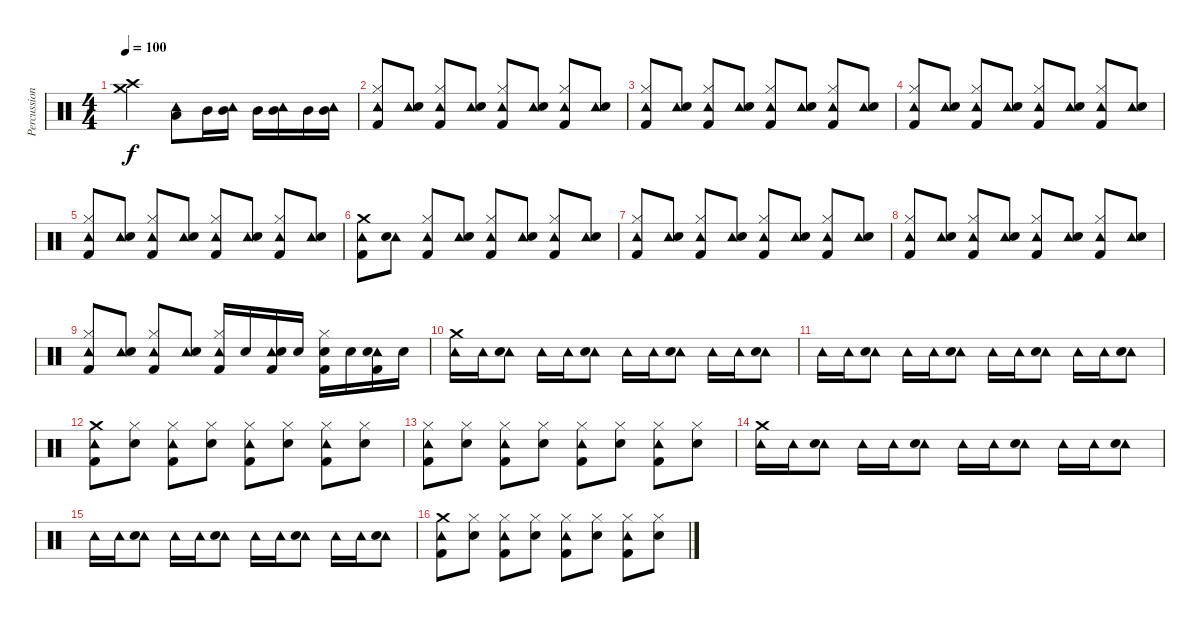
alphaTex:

\track ("Percussion" "Percussion") {instrument percussion}
\staff {score}
\articulation defaults
\ts (4 4)
\tempo 100
\clef neutral
\ks c
("Crash medium (hit)" "Crash high (hit)").2{dy f} ("Tambourine (hit)" "Low Tom (hit)").8 "Mid Tom (hit)".16 ("Tambourine (hit)" "Mid Tom (hit)").16 "Mid Tom (hit)".16 ("Tambourine (hit)" "Mid Tom (hit)").16 "Mid Tom (hit)".16 ("Tambourine (hit)" "Mid Tom (hit)").16 |
("Hi-Hat (closed)" "Tambourine (hit)" "Kick (hit) 2").8 ("Tambourine (hit)" "Electric Snare (hit)").8 ("Hi-Hat (closed)" "Tambourine (hit)" "Kick (hit) 2").8 ("Tambourine (hit)" "Electric Snare (hit)").8 ("Hi-Hat (closed)" "Tambourine (hit)" "Kick (hit) 2").8 ("Tambourine (hit)" "Electric Snare (hit)").8 ("Hi-Hat (closed)" "Tambourine (hit)" "Kick (hit) 2").8 ("Tambourine (hit)" "Electric Snare (hit)").8 |
("Hi-Hat (closed)" "Tambourine (hit)" "Kick (hit) 2").8 ("Tambourine (hit)" "Electric Snare (hit)").8 ("Hi-Hat (closed)" "Tambourine (hit)" "Kick (hit) 2").8 ("Tambourine (hit)" "Electric Snare (hit)").8 ("Hi-Hat (closed)" "Tambourine (hit)" "Kick (hit) 2").8 ("Tambourine (hit)" "Electric Snare (hit)").8 ("Hi-Hat (closed)" "Tambourine (hit)" "Kick (hit) 2").8 ("Tambourine (hit)" "Electric Snare (hit)").8 |
("Hi-Hat (closed)" "Tambourine (hit)" "Kick (hit) 2").8 ("Tambourine (hit)" "Electric Snare (hit)").8 ("Hi-Hat (closed)" "Tambourine (hit)" "Kick (hit) 2").8 ("Tambourine (hit)" "Electric Snare (hit)").8 ("Hi-Hat (closed)" "Tambourine (hit)" "Kick (hit) 2").8 ("Tambourine (hit)" "Electric Snare (hit)").8 ("Hi-Hat (closed)" "Tambourine (hit)" "Kick (hit) 2").8 ("Tambourine (hit)" "Electric Snare (hit)").8 |
("Hi-Hat (closed)" "Tambourine (hit)" "Kick (hit) 2").8 ("Tambourine (hit)" "Electric Snare (hit)").8 ("Hi-Hat (closed)" "Tambourine (hit)" "Kick (hit) 2").8 ("Tambourine (hit)" "Electric Snare (hit)").8 ("Hi-Hat (closed)" "Tambourine (hit)" "Kick (hit) 2").8 ("Tambourine (hit)" "Electric Snare (hit)").8 ("Hi-Hat (closed)" "Tambourine (hit)" "Kick (hit) 2").8 ("Tambourine (hit)" "Electric Snare (hit)").8 |
("Tambourine (hit)" "Crash medium (hit)" "Kick (hit) 2").8 ("Tambourine (hit)" "Electric Snare (hit)").8 ("Hi-Hat (closed)" "Tambourine (hit)" "Kick (hit) 2").8 ("Tambourine (hit)" "Electric Snare (hit)").8 ("Hi-Hat (closed)" "Tambourine (hit)" "Kick (hit) 2").8 ("Tambourine (hit)" "Electric Snare (hit)").8 ("Hi-Hat (closed)" "Tambourine (hit)" "Kick (hit) 2").8 ("Tambourine (hit)" "Electric Snare (hit)").8 |
("Hi-Hat (closed)" "Tambourine (hit)" "Kick (hit) 2").8 ("Tambourine (hit)" "Electric Snare (hit)").8 ("Hi-Hat (closed)" "Tambourine (hit)" "Kick (hit) 2").8 ("Tambourine (hit)" "Electric Snare (hit)").8 ("Hi-Hat (closed)" "Tambourine (hit)" "Kick (hit) 2").8 ("Tambourine (hit)" "Electric Snare (hit)").8 ("Hi-Hat (closed)" "Tambourine (hit)" "Kick (hit) 2").8 ("Tambourine (hit)" "Electric Snare (hit)").8 |
("Hi-Hat (closed)" "Tambourine (hit)" "Kick (hit) 2").8 ("Tambourine (hit)" "Electric Snare (hit)").8 ("Hi-Hat (closed)" "Tambourine (hit)" "Kick (hit) 2").8 ("Tambourine (hit)" "Electric Snare (hit)").8 ("Hi-Hat (closed)" "Tambourine (hit)" "Kick (hit) 2").8 ("Tambourine (hit)" "Electric Snare (hit)").8 ("Hi-Hat (closed)" "Tambourine (hit)" "Kick (hit) 2").8 ("Tambourine (hit)" "Electric Snare (hit)").8 |
("Hi-Hat (closed)" "Tambourine (hit)" "Kick (hit) 2").8 ("Tambourine (hit)" "Electric Snare (hit)").8 ("Hi-Hat (closed)" "Tambourine (hit)" "Kick (hit) 2").8 ("Tambourine (hit)" "Electric Snare (hit)").8 ("Hi-Hat (closed)" "Tambourine (hit)" "Kick (hit) 2").16 "Electric Snare (hit)".16 ("Tambourine (hit)" "Electric Snare (hit)" "Kick (hit) 2").16 "Electric Snare (hit)".16 ("Hi-Hat (closed)" "Electric Snare (hit)" "Kick (hit) 2").16 "Electric Snare (hit)".16 ("Tambourine (hit)" "Electric Snare (hit)" "Kick (hit) 2").16 "Electric Snare (hit)".16 |
("Tambourine (hit)" "Crash medium (hit)").16 "Tambourine (hit)".16 ("Tambourine (hit)" "Electric Snare (hit)").8 "Tambourine (hit)".16 "Tambourine (hit)".16 ("Tambourine (hit)" "Electric Snare (hit)").8 "Tambourine (hit)".16 "Tambourine (hit)".16 ("Tambourine (hit)" "Electric Snare (hit)").8 "Tambourine (hit)".16 "Tambourine (hit)".16 ("Tambourine (hit)" "Electric Snare (hit)").8 |
"Tambourine (hit)".16 "Tambourine (hit)".16 ("Tambourine (hit)" "Electric Snare (hit)").8 "Tambourine (hit)".16 "Tambourine (hit)".16 ("Tambourine (hit)" "Electric Snare (hit)").8 "Tambourine (hit)".16 "Tambourine (hit)".16 ("Tambourine (hit)" "Electric Snare (hit)").8 "Tambourine (hit)".16 "Tambourine (hit)".16 ("Tambourine (hit)" "Electric Snare (hit)").8 |
("Tambourine (hit)" "Crash medium (hit)" "Kick (hit) 2").8 ("Hi-Hat (closed)" "Electric Snare (hit)").8 ("Hi-Hat (closed)" "Tambourine (hit)" "Kick (hit) 2").8 ("Hi-Hat (closed)" "Electric Snare (hit)").8 ("Hi-Hat (closed)" "Tambourine (hit)" "Kick (hit) 2").8 ("Hi-Hat (closed)" "Electric Snare (hit)").8 ("Hi-Hat (closed)" "Tambourine (hit)" "Kick (hit) 2").8 ("Hi-Hat (closed)" "Electric Snare (hit)").8 |
("Hi-Hat (closed)" "Tambourine (hit)" "Kick (hit) 2").8 ("Hi-Hat (closed)" "Electric Snare (hit)").8 ("Hi-Hat (closed)" "Tambourine (hit)" "Kick (hit) 2").8 ("Hi-Hat (closed)" "Electric Snare (hit)").8 ("Hi-Hat (closed)" "Tambourine (hit)" "Kick (hit) 2").8 ("Hi-Hat (closed)" "Electric Snare (hit)").8 ("Hi-Hat (closed)" "Tambourine (hit)" "Kick (hit) 2").8 ("Hi-Hat (closed)" "Electric Snare (hit)").8 |
("Tambourine (hit)" "Crash medium (hit)").16 "Tambourine (hit)".16 ("Tambourine (hit)" "Electric Snare (hit)").8 "Tambourine (hit)".16 "Tambourine (hit)".16 ("Tambourine (hit)" "Electric Snare (hit)").8 "Tambourine (hit)".16 "Tambourine (hit)".16 ("Tambourine (hit)" "Electric Snare (hit)").8 "Tambourine (hit)".16 "Tambourine (hit)".16 ("Tambourine (hit)" "Electric Snare (hit)").8 |
"Tambourine (hit)".16 "Tambourine (hit)".16 ("Tambourine (hit)" "Electric Snare (hit)").8 "Tambourine (hit)".16 "Tambourine (hit)".16 ("Tambourine (hit)" "Electric Snare (hit)").8 "Tambourine (hit)".16 "Tambourine (hit)".16 ("Tambourine (hit)" "Electric Snare (hit)").8 "Tambourine (hit)".16 "Tambourine (hit)".16 ("Tambourine (hit)" "Electric Snare (hit)").8 |
("Tambourine (hit)" "Crash medium (hit)" "Kick (hit) 2").8 ("Hi-Hat (closed)" "Electric Snare (hit)").8 ("Hi-Hat (closed)" "Tambourine (hit)" "Kick (hit) 2").8 ("Hi-Hat (closed)" "Electric Snare (hit)").8 ("Hi-Hat (closed)" "Tambourine (hit)" "Kick (hit) 2").8 ("Hi-Hat (closed)" "Electric Snare (hit)").8 ("Hi-Hat (closed)" "Tambourine (hit)" "Kick (hit) 2").8 ("Hi-Hat (closed)" "Electric Snare (hit)").8
